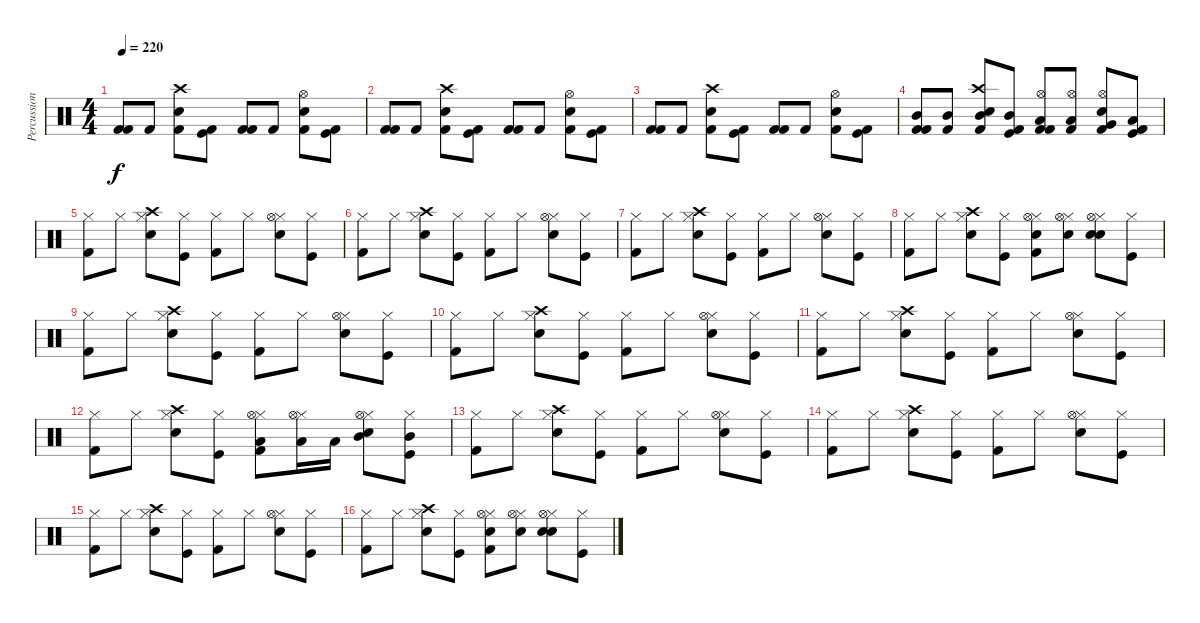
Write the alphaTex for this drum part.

\track ("Percussion" "Percussion") {instrument percussion}
\staff {score}
\articulation defaults
\ts (4 4)
\tempo 220
\clef neutral
\ks c
("Kick (hit) 2" "Kick (hit) 2").8{dy f} "Kick (hit) 2".8 ("Snare (hit) 2" "Kick (hit) 2" "Crash high (hit)").8 ("Kick (hit)" "Kick (hit) 2").8 ("Kick (hit) 2" "Kick (hit) 2").8 "Kick (hit) 2".8 ("Snare (hit) 2" "Kick (hit) 2" "Hi-Hat (open)").8 ("Kick (hit)" "Kick (hit) 2").8 |
("Kick (hit) 2" "Kick (hit) 2").8 "Kick (hit) 2".8 ("Snare (hit) 2" "Kick (hit) 2" "Crash high (hit)").8 ("Kick (hit)" "Kick (hit) 2").8 ("Kick (hit) 2" "Kick (hit) 2").8 "Kick (hit) 2".8 ("Snare (hit) 2" "Kick (hit) 2" "Hi-Hat (open)").8 ("Kick (hit)" "Kick (hit) 2").8 |
("Kick (hit) 2" "Kick (hit) 2").8 "Kick (hit) 2".8 ("Snare (hit) 2" "Kick (hit) 2" "Crash high (hit)").8 ("Kick (hit)" "Kick (hit) 2").8 ("Kick (hit) 2" "Kick (hit) 2").8 "Kick (hit) 2".8 ("Snare (hit) 2" "Kick (hit) 2" "Hi-Hat (open)").8 ("Kick (hit)" "Kick (hit) 2").8 |
("Kick (hit) 2" "Mid Tom (hit)" "Kick (hit) 2").8 ("Mid Tom (hit)" "Kick (hit) 2").8 ("Snare (hit) 2" "Mid Tom (hit)" "Kick (hit) 2" "Crash high (hit)").8 ("Kick (hit)" "Mid Tom (hit)" "Kick (hit) 2").8 ("Kick (hit) 2" "Low Tom (hit)" "Kick (hit) 2" "Hi-Hat (open)").8 ("Low Tom (hit)" "Kick (hit) 2" "Hi-Hat (open)").8 ("Snare (hit) 2" "Very Low Tom (hit)" "Kick (hit) 2" "Hi-Hat (open)").8 ("Kick (hit)" "Low Tom (hit)" "Kick (hit) 2").8 |
("Kick (hit) 2" "Hi-Hat (closed)").8 "Hi-Hat (closed)".8 ("Snare (hit) 2" "Hi-Hat (closed)" "Crash high (hit)").8 ("Kick (hit)" "Hi-Hat (closed)").8 ("Kick (hit) 2" "Hi-Hat (closed)").8 "Hi-Hat (closed)".8 ("Snare (hit) 2" "Hi-Hat (closed)" "Hi-Hat (open)").8 ("Kick (hit)" "Hi-Hat (closed)").8 |
("Kick (hit) 2" "Hi-Hat (closed)").8 "Hi-Hat (closed)".8 ("Snare (hit) 2" "Hi-Hat (closed)" "Crash high (hit)").8 ("Kick (hit)" "Hi-Hat (closed)").8 ("Kick (hit) 2" "Hi-Hat (closed)").8 "Hi-Hat (closed)".8 ("Snare (hit) 2" "Hi-Hat (closed)" "Hi-Hat (open)").8 ("Kick (hit)" "Hi-Hat (closed)").8 |
("Kick (hit) 2" "Hi-Hat (closed)").8 "Hi-Hat (closed)".8 ("Snare (hit) 2" "Hi-Hat (closed)" "Crash high (hit)").8 ("Kick (hit)" "Hi-Hat (closed)").8 ("Kick (hit) 2" "Hi-Hat (closed)").8 "Hi-Hat (closed)".8 ("Snare (hit) 2" "Hi-Hat (closed)" "Hi-Hat (open)").8 ("Kick (hit)" "Hi-Hat (closed)").8 |
("Kick (hit) 2" "Hi-Hat (closed)").8 "Hi-Hat (closed)".8 ("Snare (hit) 2" "Hi-Hat (closed)" "Crash high (hit)").8 ("Kick (hit)" "Hi-Hat (closed)").8 ("Kick (hit) 2" "Snare (hit) 2" "Hi-Hat (closed)" "Hi-Hat (open)").8 ("Snare (hit) 2" "Hi-Hat (closed)" "Hi-Hat (open)").8 ("Snare (hit) 2" "Snare (hit) 2" "Hi-Hat (closed)" "Hi-Hat (open)").8 ("Kick (hit)" "Hi-Hat (closed)").8 |
("Kick (hit) 2" "Hi-Hat (closed)").8 "Hi-Hat (closed)".8 ("Snare (hit) 2" "Hi-Hat (closed)" "Crash high (hit)").8 ("Kick (hit)" "Hi-Hat (closed)").8 ("Kick (hit) 2" "Hi-Hat (closed)").8 "Hi-Hat (closed)".8 ("Snare (hit) 2" "Hi-Hat (closed)" "Hi-Hat (open)").8 ("Kick (hit)" "Hi-Hat (closed)").8 |
("Kick (hit) 2" "Hi-Hat (closed)").8 "Hi-Hat (closed)".8 ("Snare (hit) 2" "Hi-Hat (closed)" "Crash high (hit)").8 ("Kick (hit)" "Hi-Hat (closed)").8 ("Kick (hit) 2" "Hi-Hat (closed)").8 "Hi-Hat (closed)".8 ("Snare (hit) 2" "Hi-Hat (closed)" "Hi-Hat (open)").8 ("Kick (hit)" "Hi-Hat (closed)").8 |
("Kick (hit) 2" "Hi-Hat (closed)").8 "Hi-Hat (closed)".8 ("Snare (hit) 2" "Hi-Hat (closed)" "Crash high (hit)").8 ("Kick (hit)" "Hi-Hat (closed)").8 ("Kick (hit) 2" "Hi-Hat (closed)").8 "Hi-Hat (closed)".8 ("Snare (hit) 2" "Hi-Hat (closed)" "Hi-Hat (open)").8 ("Kick (hit)" "Hi-Hat (closed)").8 |
("Kick (hit) 2" "Hi-Hat (closed)").8 "Hi-Hat (closed)".8 ("Snare (hit) 2" "Hi-Hat (closed)" "Crash high (hit)").8 ("Kick (hit)" "Hi-Hat (closed)").8 ("Kick (hit) 2" "Low Tom (hit)" "Hi-Hat (closed)" "Hi-Hat (open)").8 ("Low Tom (hit)" "Hi-Hat (closed)" "Hi-Hat (open)").16 "Low Tom (hit)".16 ("Snare (hit) 2" "Mid Tom (hit)" "Hi-Hat (closed)" "Hi-Hat (open)").8 ("Kick (hit)" "Mid Tom (hit)" "Hi-Hat (closed)").8 |
("Kick (hit) 2" "Hi-Hat (closed)").8 "Hi-Hat (closed)".8 ("Snare (hit) 2" "Hi-Hat (closed)" "Crash high (hit)").8 ("Kick (hit)" "Hi-Hat (closed)").8 ("Kick (hit) 2" "Hi-Hat (closed)").8 "Hi-Hat (closed)".8 ("Snare (hit) 2" "Hi-Hat (closed)" "Hi-Hat (open)").8 ("Kick (hit)" "Hi-Hat (closed)").8 |
("Kick (hit) 2" "Hi-Hat (closed)").8 "Hi-Hat (closed)".8 ("Snare (hit) 2" "Hi-Hat (closed)" "Crash high (hit)").8 ("Kick (hit)" "Hi-Hat (closed)").8 ("Kick (hit) 2" "Hi-Hat (closed)").8 "Hi-Hat (closed)".8 ("Snare (hit) 2" "Hi-Hat (closed)" "Hi-Hat (open)").8 ("Kick (hit)" "Hi-Hat (closed)").8 |
("Kick (hit) 2" "Hi-Hat (closed)").8 "Hi-Hat (closed)".8 ("Snare (hit) 2" "Hi-Hat (closed)" "Crash high (hit)").8 ("Kick (hit)" "Hi-Hat (closed)").8 ("Kick (hit) 2" "Hi-Hat (closed)").8 "Hi-Hat (closed)".8 ("Snare (hit) 2" "Hi-Hat (closed)" "Hi-Hat (open)").8 ("Kick (hit)" "Hi-Hat (closed)").8 |
("Kick (hit) 2" "Hi-Hat (closed)").8 "Hi-Hat (closed)".8 ("Snare (hit) 2" "Hi-Hat (closed)" "Crash high (hit)").8 ("Kick (hit)" "Hi-Hat (closed)").8 ("Kick (hit) 2" "Snare (hit) 2" "Hi-Hat (closed)" "Hi-Hat (open)").8 ("Snare (hit) 2" "Hi-Hat (closed)" "Hi-Hat (open)").8 ("Snare (hit) 2" "Snare (hit) 2" "Hi-Hat (closed)" "Hi-Hat (open)").8 ("Kick (hit)" "Hi-Hat (closed)").8
